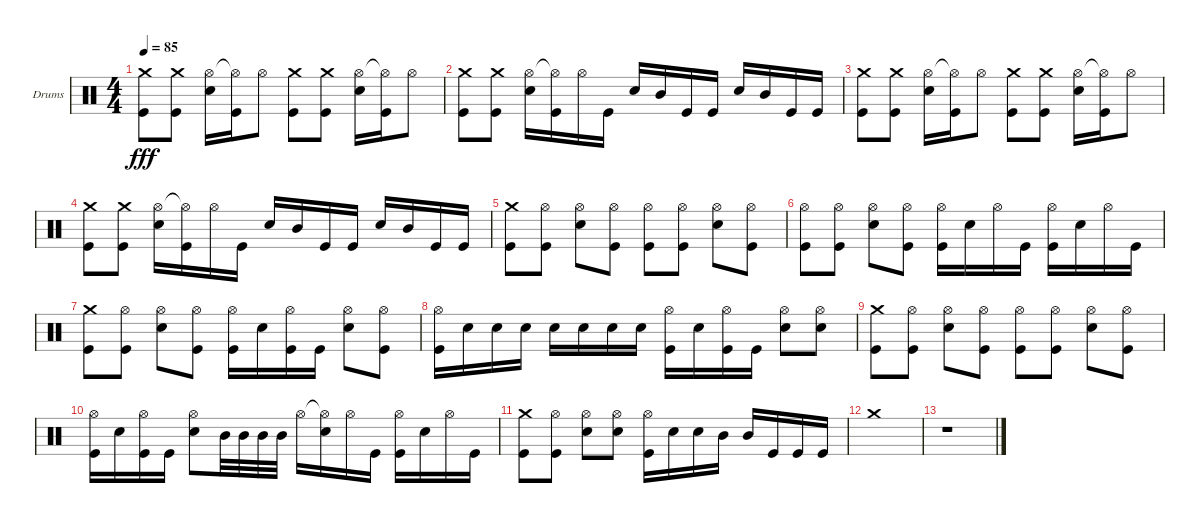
\defaultSystemsLayout 4
\bracketExtendMode groupsimilarinstruments
\firstSystemTrackNameOrientation horizontal
\otherSystemsTrackNameOrientation horizontal
\track ("Drumkit" "Drums") {instrument percussion}
\staff {score}
\articulation defaults
\ts (4 4)
\tempo 85
\clef neutral
\ks c
("Crash medium (hit)" "Kick (hit)").8{dy fff} ("Crash medium (hit)" "Kick (hit)").8 ("Hi-Hat (open)" "Snare (hit) 2").16 ("Hi-Hat (open)"{t} "Kick (hit)").16 "Hi-Hat (open)".8 ("Crash medium (hit)" "Kick (hit)").8 ("Crash medium (hit)" "Kick (hit)").8 ("Hi-Hat (open)" "Snare (hit) 2").16 ("Hi-Hat (open)"{t} "Kick (hit)").16 "Hi-Hat (open)".8 |
("Crash medium (hit)" "Kick (hit)").8 ("Crash medium (hit)" "Kick (hit)").8 ("Hi-Hat (open)" "Snare (hit) 2").16 ("Hi-Hat (open)"{t} "Kick (hit)").16 "Hi-Hat (open)".16 "Kick (hit)".16 "Snare (hit) 2".16 "Mid Tom (hit)".16 "Kick (hit)".16 "Kick (hit)".16 "Snare (hit) 2".16 "Mid Tom (hit)".16 "Kick (hit)".16 "Kick (hit)".16 |
("Crash medium (hit)" "Kick (hit)").8 ("Crash medium (hit)" "Kick (hit)").8 ("Hi-Hat (open)" "Snare (hit) 2").16 ("Hi-Hat (open)"{t} "Kick (hit)").16 "Hi-Hat (open)".8 ("Crash medium (hit)" "Kick (hit)").8 ("Crash medium (hit)" "Kick (hit)").8 ("Hi-Hat (open)" "Snare (hit) 2").16 ("Hi-Hat (open)"{t} "Kick (hit)").16 "Hi-Hat (open)".8 |
("Crash medium (hit)" "Kick (hit)").8 ("Crash medium (hit)" "Kick (hit)").8 ("Hi-Hat (open)" "Snare (hit) 2").16 ("Hi-Hat (open)"{t} "Kick (hit)").16 "Hi-Hat (open)".16 "Kick (hit)".16 "Snare (hit) 2".16 "Mid Tom (hit)".16 "Kick (hit)".16 "Kick (hit)".16 "Snare (hit) 2".16 "Mid Tom (hit)".16 "Kick (hit)".16 "Kick (hit)".16 |
("Crash medium (hit)" "Kick (hit)").8 ("Hi-Hat (open)" "Kick (hit)").8 ("Hi-Hat (open)" "Snare (hit) 2").8 ("Hi-Hat (open)" "Kick (hit)").8 ("Hi-Hat (open)" "Kick (hit)").8 ("Hi-Hat (open)" "Kick (hit)").8 ("Hi-Hat (open)" "Snare (hit) 2").8 ("Hi-Hat (open)" "Kick (hit)").8 |
("Hi-Hat (open)" "Kick (hit)").8 ("Hi-Hat (open)" "Kick (hit)").8 ("Hi-Hat (open)" "Snare (hit) 2").8 ("Hi-Hat (open)" "Kick (hit)").8 ("Hi-Hat (open)" "Kick (hit)").16 "Snare (hit) 2".16 "Hi-Hat (open)".16 "Kick (hit)".16 ("Hi-Hat (open)" "Kick (hit)").16 "Snare (hit) 2".16 "Hi-Hat (open)".16 "Kick (hit)".16 |
("Crash medium (hit)" "Kick (hit)").8 ("Hi-Hat (open)" "Kick (hit)").8 ("Hi-Hat (open)" "Snare (hit) 2").8 ("Hi-Hat (open)" "Kick (hit)").8 ("Hi-Hat (open)" "Kick (hit)").16 "Snare (hit) 2".16 ("Hi-Hat (open)" "Kick (hit)").16 "Kick (hit)".16 ("Hi-Hat (open)" "Snare (hit) 2").8 ("Hi-Hat (open)" "Kick (hit)").8 |
("Hi-Hat (open)" "Kick (hit)").16 "Snare (hit) 2".16 "Snare (hit) 2".16 "Snare (hit) 2".16 "Snare (hit) 2".16 "Snare (hit) 2".16 "Snare (hit) 2".16 "Snare (hit) 2".16 ("Hi-Hat (open)" "Kick (hit)").16 "Snare (hit) 2".16 ("Hi-Hat (open)" "Kick (hit)").16 "Kick (hit)".16 ("Hi-Hat (open)" "Snare (hit) 2").8 ("Hi-Hat (open)" "Snare (hit) 2").8 |
("Crash medium (hit)" "Kick (hit)").8 ("Hi-Hat (open)" "Kick (hit)").8 ("Hi-Hat (open)" "Snare (hit) 2").8 ("Hi-Hat (open)" "Kick (hit)").8 ("Hi-Hat (open)" "Kick (hit)").8 ("Hi-Hat (open)" "Kick (hit)").8 ("Hi-Hat (open)" "Snare (hit) 2").8 ("Hi-Hat (open)" "Kick (hit)").8 |
("Hi-Hat (open)" "Kick (hit)").16 "Snare (hit) 2".16 ("Hi-Hat (open)" "Kick (hit)").16 "Kick (hit)".16 ("Hi-Hat (open)" "Snare (hit) 2").8 "Mid Tom (hit)".32 "Mid Tom (hit)".32 "Mid Tom (hit)".32 "Mid Tom (hit)".32 "Hi-Hat (open)".16 ("Hi-Hat (open)"{t} "Snare (hit) 2").16 "Hi-Hat (open)".16 "Kick (hit)".16 ("Hi-Hat (open)" "Kick (hit)").16 "Snare (hit) 2".16 "Hi-Hat (open)".16 "Kick (hit)".16 |
("Crash medium (hit)" "Kick (hit)").8 ("Hi-Hat (open)" "Kick (hit)").8 ("Hi-Hat (open)" "Snare (hit) 2").8 ("Hi-Hat (open)" "Snare (hit) 2").8 ("Hi-Hat (open)" "Kick (hit)").16 "Snare (hit) 2".16 "Snare (hit) 2".16 "Mid Tom (hit)".16 "Mid Tom (hit)".16 "Kick (hit)".16 "Kick (hit)".16 "Kick (hit)".16 |
"Crash medium (hit)".1 |
r.1
